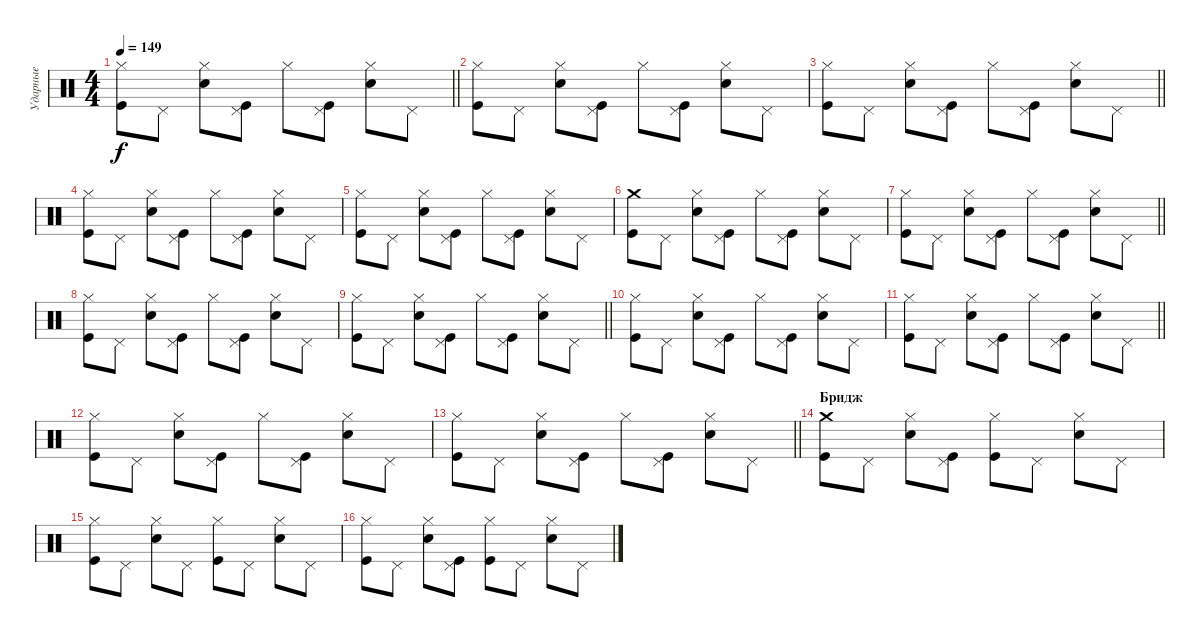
\track ("Ударные" "Ударные") {instrument percussion}
\staff {score}
\articulation defaults
\ts (4 4)
\tempo 149
\clef neutral
\barLineRight lightlight
\ks c
("Hi-Hat (closed)" "Kick (hit)").8{dy f} "Pedal Hi-Hat (hit)".8 ("Hi-Hat (closed)" "Snare (hit) 2").8 ("Pedal Hi-Hat (hit)" "Kick (hit)").8 "Hi-Hat (closed)".8 ("Pedal Hi-Hat (hit)" "Kick (hit)").8 ("Hi-Hat (closed)" "Snare (hit) 2").8 "Pedal Hi-Hat (hit)".8 |
("Hi-Hat (closed)" "Kick (hit)").8 "Pedal Hi-Hat (hit)".8 ("Hi-Hat (closed)" "Snare (hit) 2").8 ("Pedal Hi-Hat (hit)" "Kick (hit)").8 "Hi-Hat (closed)".8 ("Pedal Hi-Hat (hit)" "Kick (hit)").8 ("Hi-Hat (closed)" "Snare (hit) 2").8 "Pedal Hi-Hat (hit)".8 |
\barLineRight lightlight
("Hi-Hat (closed)" "Kick (hit)").8 "Pedal Hi-Hat (hit)".8 ("Hi-Hat (closed)" "Snare (hit) 2").8 ("Pedal Hi-Hat (hit)" "Kick (hit)").8 "Hi-Hat (closed)".8 ("Pedal Hi-Hat (hit)" "Kick (hit)").8 ("Hi-Hat (closed)" "Snare (hit) 2").8 "Pedal Hi-Hat (hit)".8 |
("Hi-Hat (closed)" "Kick (hit)").8 "Pedal Hi-Hat (hit)".8 ("Hi-Hat (closed)" "Snare (hit) 2").8 ("Pedal Hi-Hat (hit)" "Kick (hit)").8 "Hi-Hat (closed)".8 ("Pedal Hi-Hat (hit)" "Kick (hit)").8 ("Hi-Hat (closed)" "Snare (hit) 2").8 "Pedal Hi-Hat (hit)".8 |
("Hi-Hat (closed)" "Kick (hit)").8 "Pedal Hi-Hat (hit)".8 ("Hi-Hat (closed)" "Snare (hit) 2").8 ("Pedal Hi-Hat (hit)" "Kick (hit)").8 "Hi-Hat (closed)".8 ("Pedal Hi-Hat (hit)" "Kick (hit)").8 ("Hi-Hat (closed)" "Snare (hit) 2").8 "Pedal Hi-Hat (hit)".8 |
("Crash medium (hit)" "Kick (hit)").8 "Pedal Hi-Hat (hit)".8 ("Hi-Hat (closed)" "Snare (hit) 2").8 ("Pedal Hi-Hat (hit)" "Kick (hit)").8 "Hi-Hat (closed)".8 ("Pedal Hi-Hat (hit)" "Kick (hit)").8 ("Hi-Hat (closed)" "Snare (hit) 2").8 "Pedal Hi-Hat (hit)".8 |
\barLineRight lightlight
("Hi-Hat (closed)" "Kick (hit)").8 "Pedal Hi-Hat (hit)".8 ("Hi-Hat (closed)" "Snare (hit) 2").8 ("Pedal Hi-Hat (hit)" "Kick (hit)").8 "Hi-Hat (closed)".8 ("Pedal Hi-Hat (hit)" "Kick (hit)").8 ("Hi-Hat (closed)" "Snare (hit) 2").8 "Pedal Hi-Hat (hit)".8 |
("Hi-Hat (closed)" "Kick (hit)").8 "Pedal Hi-Hat (hit)".8 ("Hi-Hat (closed)" "Snare (hit) 2").8 ("Pedal Hi-Hat (hit)" "Kick (hit)").8 "Hi-Hat (closed)".8 ("Pedal Hi-Hat (hit)" "Kick (hit)").8 ("Hi-Hat (closed)" "Snare (hit) 2").8 "Pedal Hi-Hat (hit)".8 |
\barLineRight lightlight
("Hi-Hat (closed)" "Kick (hit)").8 "Pedal Hi-Hat (hit)".8 ("Hi-Hat (closed)" "Snare (hit) 2").8 ("Pedal Hi-Hat (hit)" "Kick (hit)").8 "Hi-Hat (closed)".8 ("Pedal Hi-Hat (hit)" "Kick (hit)").8 ("Hi-Hat (closed)" "Snare (hit) 2").8 "Pedal Hi-Hat (hit)".8 |
("Hi-Hat (closed)" "Kick (hit)").8 "Pedal Hi-Hat (hit)".8 ("Hi-Hat (closed)" "Snare (hit) 2").8 ("Pedal Hi-Hat (hit)" "Kick (hit)").8 "Hi-Hat (closed)".8 ("Pedal Hi-Hat (hit)" "Kick (hit)").8 ("Hi-Hat (closed)" "Snare (hit) 2").8 "Pedal Hi-Hat (hit)".8 |
\barLineRight lightlight
("Hi-Hat (closed)" "Kick (hit)").8 "Pedal Hi-Hat (hit)".8 ("Hi-Hat (closed)" "Snare (hit) 2").8 ("Pedal Hi-Hat (hit)" "Kick (hit)").8 "Hi-Hat (closed)".8 ("Pedal Hi-Hat (hit)" "Kick (hit)").8 ("Hi-Hat (closed)" "Snare (hit) 2").8 "Pedal Hi-Hat (hit)".8 |
("Hi-Hat (closed)" "Kick (hit)").8 "Pedal Hi-Hat (hit)".8 ("Hi-Hat (closed)" "Snare (hit) 2").8 ("Pedal Hi-Hat (hit)" "Kick (hit)").8 "Hi-Hat (closed)".8 ("Pedal Hi-Hat (hit)" "Kick (hit)").8 ("Hi-Hat (closed)" "Snare (hit) 2").8 "Pedal Hi-Hat (hit)".8 |
\barLineRight lightlight
("Hi-Hat (closed)" "Kick (hit)").8 "Pedal Hi-Hat (hit)".8 ("Hi-Hat (closed)" "Snare (hit) 2").8 ("Pedal Hi-Hat (hit)" "Kick (hit)").8 "Hi-Hat (closed)".8 ("Pedal Hi-Hat (hit)" "Kick (hit)").8 ("Hi-Hat (closed)" "Snare (hit) 2").8 "Pedal Hi-Hat (hit)".8 |
\section ("" "Бридж")
("Crash medium (hit)" "Kick (hit)").8 "Pedal Hi-Hat (hit)".8 ("Hi-Hat (closed)" "Snare (hit) 2").8 ("Pedal Hi-Hat (hit)" "Kick (hit)").8 ("Hi-Hat (closed)" "Kick (hit)").8 "Pedal Hi-Hat (hit)".8 ("Hi-Hat (closed)" "Snare (hit) 2").8 "Pedal Hi-Hat (hit)".8 |
("Hi-Hat (closed)" "Kick (hit)").8 "Pedal Hi-Hat (hit)".8 ("Hi-Hat (closed)" "Snare (hit) 2").8 "Pedal Hi-Hat (hit)".8 ("Hi-Hat (closed)" "Kick (hit)").8 "Pedal Hi-Hat (hit)".8 ("Hi-Hat (closed)" "Snare (hit) 2").8 "Pedal Hi-Hat (hit)".8 |
("Hi-Hat (closed)" "Kick (hit)").8 "Pedal Hi-Hat (hit)".8 ("Hi-Hat (closed)" "Snare (hit) 2").8 ("Pedal Hi-Hat (hit)" "Kick (hit)").8 ("Hi-Hat (closed)" "Kick (hit)").8 "Pedal Hi-Hat (hit)".8 ("Hi-Hat (closed)" "Snare (hit) 2").8 "Pedal Hi-Hat (hit)".8
